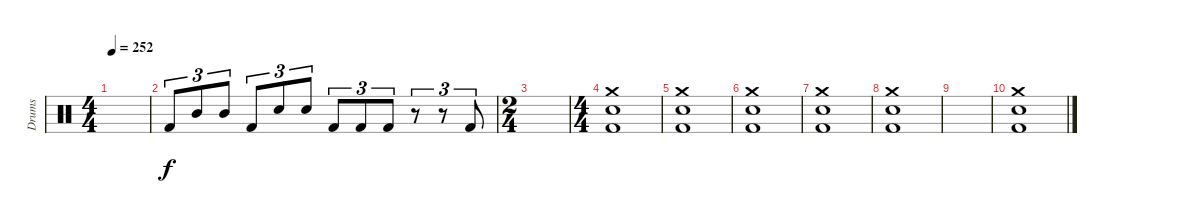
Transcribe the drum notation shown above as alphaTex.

\track ("Drums" "Drums") {instrument percussion}
\staff {score}
\articulation defaults
\ts (4 4)
\tempo 252
\clef neutral
\ks c
|
"Kick (hit) 2".8{tu (3 2)} "Mid Tom (hit)".8{tu (3 2)} "Mid Tom (hit)".8{tu (3 2)} "Kick (hit) 2".8{tu (3 2)} "Snare (hit) 2".8{tu (3 2)} "Snare (hit) 2".8{tu (3 2)} "Kick (hit) 2".8{tu (3 2)} "Kick (hit) 2".8{tu (3 2)} "Kick (hit) 2".8{tu (3 2)} r.8{tu (3 2)} r.8{tu (3 2)} "Kick (hit) 2".8{tu (3 2)} |
\ts (2 4)
|
\ts (4 4)
("Crash medium (hit)" "Kick (hit) 2" "Snare (hit) 2").1 |
("Crash medium (hit)" "Kick (hit) 2" "Snare (hit) 2").1 |
("Crash medium (hit)" "Kick (hit) 2" "Snare (hit) 2").1 |
("Crash medium (hit)" "Kick (hit) 2" "Snare (hit) 2").1 |
("Crash medium (hit)" "Kick (hit) 2" "Snare (hit) 2").1 |
|
("Crash medium (hit)" "Kick (hit) 2" "Snare (hit) 2").1
